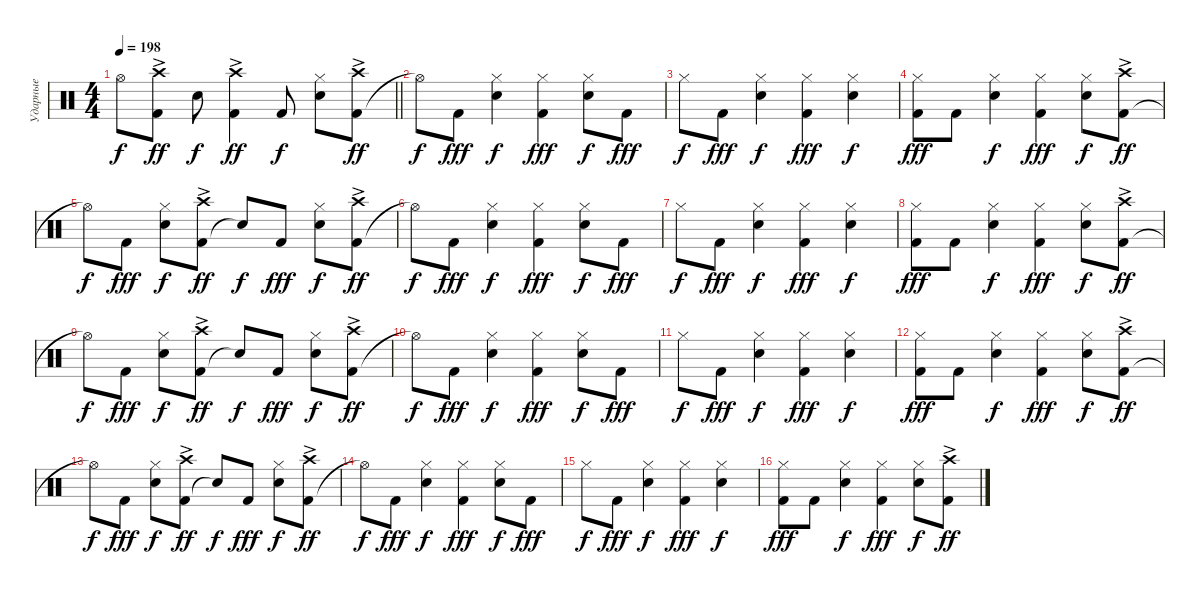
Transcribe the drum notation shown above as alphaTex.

\track ("Ударные" "Ударные") {instrument percussion}
\staff {score}
\articulation defaults
\ts (4 4)
\tempo 198
\clef neutral
\barLineRight lightlight
\ks c "Hi-Hat (open)"{t}.8{dy f}
("Kick (hit) 2" "Crash high (hit)"{ac}).8{dy ff} "Snare (hit) 2".8{dy f} ("Kick (hit) 2" "Crash high (hit)"{ac}).4{dy ff} "Kick (hit) 2".8{dy f} ("Snare (hit) 2" "Hi-Hat (closed)").8 ("Kick (hit) 2" "Crash high (hit)"{ac}).8{dy ff} |
"Hi-Hat (open)"{t}.8{dy f} "Kick (hit) 2".8{dy fff} ("Snare (hit) 2" "Hi-Hat (closed)").4{dy f} ("Kick (hit) 2" "Hi-Hat (closed)").4{dy fff} ("Snare (hit) 2" "Hi-Hat (closed)").8{dy f} "Kick (hit) 2".8{dy fff} |
"Hi-Hat (closed)".8{dy f} "Kick (hit) 2".8{dy fff} ("Snare (hit) 2" "Hi-Hat (closed)").4{dy f} ("Kick (hit) 2" "Hi-Hat (closed)").4{dy fff} ("Snare (hit) 2" "Hi-Hat (closed)").4{dy f} |
("Kick (hit) 2" "Hi-Hat (closed)").8{dy fff} "Kick (hit) 2".8 ("Snare (hit) 2" "Hi-Hat (closed)").4{dy f} ("Kick (hit) 2" "Hi-Hat (closed)").4{dy fff} ("Snare (hit) 2" "Hi-Hat (closed)").8{dy f} ("Kick (hit) 2" "Crash high (hit)"{ac}).8{dy ff} |
"Hi-Hat (open)"{t}.8{dy f} "Kick (hit) 2".8{dy fff} ("Snare (hit) 2" "Hi-Hat (closed)").8{dy f} ("Kick (hit) 2" "Crash high (hit)"{ac}).8{dy ff} "Snare (hit)"{t}.8{dy f} "Kick (hit) 2".8{dy fff} ("Snare (hit) 2" "Hi-Hat (closed)").8{dy f} ("Kick (hit) 2" "Crash high (hit)"{ac}).8{dy ff} |
"Hi-Hat (open)"{t}.8{dy f} "Kick (hit) 2".8{dy fff} ("Snare (hit) 2" "Hi-Hat (closed)").4{dy f} ("Kick (hit) 2" "Hi-Hat (closed)").4{dy fff} ("Snare (hit) 2" "Hi-Hat (closed)").8{dy f} "Kick (hit) 2".8{dy fff} |
"Hi-Hat (closed)".8{dy f} "Kick (hit) 2".8{dy fff} ("Snare (hit) 2" "Hi-Hat (closed)").4{dy f} ("Kick (hit) 2" "Hi-Hat (closed)").4{dy fff} ("Snare (hit) 2" "Hi-Hat (closed)").4{dy f} |
("Kick (hit) 2" "Hi-Hat (closed)").8{dy fff} "Kick (hit) 2".8 ("Snare (hit) 2" "Hi-Hat (closed)").4{dy f} ("Kick (hit) 2" "Hi-Hat (closed)").4{dy fff} ("Snare (hit) 2" "Hi-Hat (closed)").8{dy f} ("Kick (hit) 2" "Crash high (hit)"{ac}).8{dy ff} |
"Hi-Hat (open)"{t}.8{dy f} "Kick (hit) 2".8{dy fff} ("Snare (hit) 2" "Hi-Hat (closed)").8{dy f} ("Kick (hit) 2" "Crash high (hit)"{ac}).8{dy ff} "Snare (hit)"{t}.8{dy f} "Kick (hit) 2".8{dy fff} ("Snare (hit) 2" "Hi-Hat (closed)").8{dy f} ("Kick (hit) 2" "Crash high (hit)"{ac}).8{dy ff} |
"Hi-Hat (open)"{t}.8{dy f} "Kick (hit) 2".8{dy fff} ("Snare (hit) 2" "Hi-Hat (closed)").4{dy f} ("Kick (hit) 2" "Hi-Hat (closed)").4{dy fff} ("Snare (hit) 2" "Hi-Hat (closed)").8{dy f} "Kick (hit) 2".8{dy fff} |
"Hi-Hat (closed)".8{dy f} "Kick (hit) 2".8{dy fff} ("Snare (hit) 2" "Hi-Hat (closed)").4{dy f} ("Kick (hit) 2" "Hi-Hat (closed)").4{dy fff} ("Snare (hit) 2" "Hi-Hat (closed)").4{dy f} |
("Kick (hit) 2" "Hi-Hat (closed)").8{dy fff} "Kick (hit) 2".8 ("Snare (hit) 2" "Hi-Hat (closed)").4{dy f} ("Kick (hit) 2" "Hi-Hat (closed)").4{dy fff} ("Snare (hit) 2" "Hi-Hat (closed)").8{dy f} ("Kick (hit) 2" "Crash high (hit)"{ac}).8{dy ff} |
"Hi-Hat (open)"{t}.8{dy f} "Kick (hit) 2".8{dy fff} ("Snare (hit) 2" "Hi-Hat (closed)").8{dy f} ("Kick (hit) 2" "Crash high (hit)"{ac}).8{dy ff} "Snare (hit)"{t}.8{dy f} "Kick (hit) 2".8{dy fff} ("Snare (hit) 2" "Hi-Hat (closed)").8{dy f} ("Kick (hit) 2" "Crash high (hit)"{ac}).8{dy ff} |
"Hi-Hat (open)"{t}.8{dy f} "Kick (hit) 2".8{dy fff} ("Snare (hit) 2" "Hi-Hat (closed)").4{dy f} ("Kick (hit) 2" "Hi-Hat (closed)").4{dy fff} ("Snare (hit) 2" "Hi-Hat (closed)").8{dy f} "Kick (hit) 2".8{dy fff} |
"Hi-Hat (closed)".8{dy f} "Kick (hit) 2".8{dy fff} ("Snare (hit) 2" "Hi-Hat (closed)").4{dy f} ("Kick (hit) 2" "Hi-Hat (closed)").4{dy fff} ("Snare (hit) 2" "Hi-Hat (closed)").4{dy f} |
("Kick (hit) 2" "Hi-Hat (closed)").8{dy fff} "Kick (hit) 2".8 ("Snare (hit) 2" "Hi-Hat (closed)").4{dy f} ("Kick (hit) 2" "Hi-Hat (closed)").4{dy fff} ("Snare (hit) 2" "Hi-Hat (closed)").8{dy f} ("Kick (hit) 2" "Crash high (hit)"{ac}).8{dy ff}
